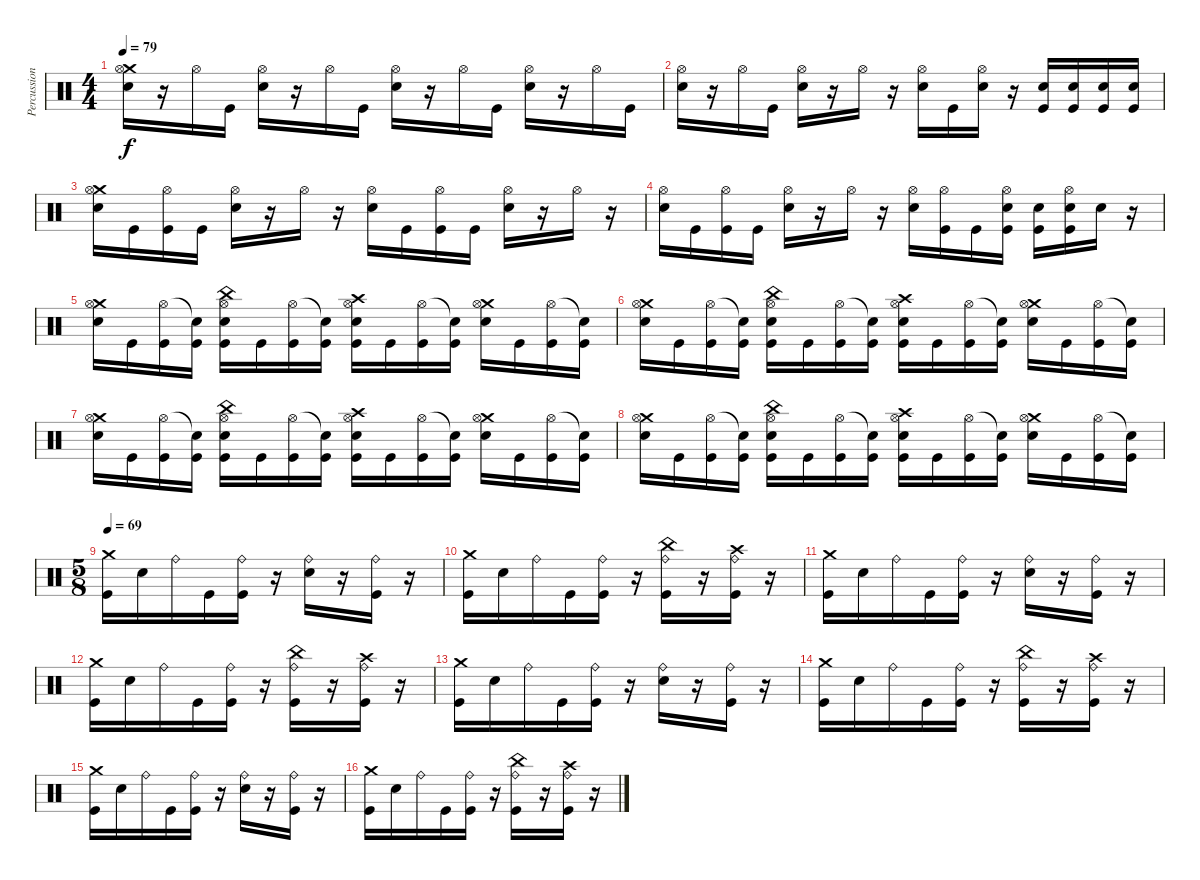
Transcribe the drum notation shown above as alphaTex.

\track ("Percussion" "Percussion") {instrument percussion}
\staff {score}
\articulation defaults
\ts (4 4)
\tempo 79
\clef neutral
\ks c
("Crash medium (hit)" "Hi-Hat (open)" "Electric Snare (hit)").16{dy f} r.16 "Hi-Hat (open)".16 "Kick (hit)".16 ("Hi-Hat (open)" "Electric Snare (hit)").16 r.16 "Hi-Hat (open)".16 "Kick (hit)".16 ("Hi-Hat (open)" "Electric Snare (hit)").16 r.16 "Hi-Hat (open)".16 "Kick (hit)".16 ("Hi-Hat (open)" "Electric Snare (hit)").16 r.16 "Hi-Hat (open)".16 "Kick (hit)".16 |
("Hi-Hat (open)" "Electric Snare (hit)").16 r.16 "Hi-Hat (open)".16 "Kick (hit)".16 ("Hi-Hat (open)" "Electric Snare (hit)").16 r.16 "Hi-Hat (open)".16 r.16 ("Hi-Hat (open)" "Electric Snare (hit)").16 "Kick (hit)".16 ("Hi-Hat (open)" "Electric Snare (hit)").16 r.16 ("Electric Snare (hit)" "Kick (hit)").16 ("Electric Snare (hit)" "Kick (hit)").16 ("Electric Snare (hit)" "Kick (hit)").16 ("Electric Snare (hit)" "Kick (hit)").16 |
("Crash medium (hit)" "Hi-Hat (open)" "Electric Snare (hit)").16 "Kick (hit)".16 ("Hi-Hat (open)" "Kick (hit)").16 "Kick (hit)".16 ("Hi-Hat (open)" "Electric Snare (hit)").16 r.16 "Hi-Hat (open)".16 r.16 ("Hi-Hat (open)" "Electric Snare (hit)").16 "Kick (hit)".16 ("Hi-Hat (open)" "Kick (hit)").16 "Kick (hit)".16 ("Hi-Hat (open)" "Electric Snare (hit)").16 r.16 "Hi-Hat (open)".16 r.16 |
("Hi-Hat (open)" "Electric Snare (hit)").16 "Kick (hit)".16 ("Hi-Hat (open)" "Kick (hit)").16 "Kick (hit)".16 ("Hi-Hat (open)" "Electric Snare (hit)").16 r.16 "Hi-Hat (open)".16 r.16 ("Hi-Hat (open)" "Electric Snare (hit)").16 ("Hi-Hat (open)" "Kick (hit)").16 "Kick (hit)".16 ("Hi-Hat (open)" "Electric Snare (hit)" "Kick (hit)").16 ("Electric Snare (hit)" "Kick (hit)").16 ("Hi-Hat (open)" "Electric Snare (hit)" "Kick (hit)").16 "Electric Snare (hit)".16 r.16 |
("Crash medium (hit)" "Hi-Hat (open)" "Electric Snare (hit)").16 "Kick (hit)".16 ("Hi-Hat (open)" "Kick (hit)").16 ("Snare (hit)"{t} "Kick (hit)").16 ("China (hit)" "Hi-Hat (open)" "Electric Snare (hit)" "Kick (hit)").16 "Kick (hit)".16 ("Hi-Hat (open)" "Kick (hit)").16 ("Snare (hit)"{t} "Kick (hit)").16 ("Crash high (hit)" "Hi-Hat (open)" "Electric Snare (hit)" "Kick (hit)").16 "Kick (hit)".16 ("Hi-Hat (open)" "Kick (hit)").16 ("Snare (hit)"{t} "Kick (hit)").16 ("Crash medium (hit)" "Hi-Hat (open)" "Electric Snare (hit)").16 "Kick (hit)".16 ("Hi-Hat (open)" "Kick (hit)").16 ("Snare (hit)"{t} "Kick (hit)").16 |
("Crash medium (hit)" "Hi-Hat (open)" "Electric Snare (hit)").16 "Kick (hit)".16 ("Hi-Hat (open)" "Kick (hit)").16 ("Snare (hit)"{t} "Kick (hit)").16 ("China (hit)" "Hi-Hat (open)" "Electric Snare (hit)" "Kick (hit)").16 "Kick (hit)".16 ("Hi-Hat (open)" "Kick (hit)").16 ("Snare (hit)"{t} "Kick (hit)").16 ("Crash high (hit)" "Hi-Hat (open)" "Electric Snare (hit)" "Kick (hit)").16 "Kick (hit)".16 ("Hi-Hat (open)" "Kick (hit)").16 ("Snare (hit)"{t} "Kick (hit)").16 ("Crash medium (hit)" "Hi-Hat (open)" "Electric Snare (hit)").16 "Kick (hit)".16 ("Hi-Hat (open)" "Kick (hit)").16 ("Snare (hit)"{t} "Kick (hit)").16 |
("Crash medium (hit)" "Hi-Hat (open)" "Electric Snare (hit)").16 "Kick (hit)".16 ("Hi-Hat (open)" "Kick (hit)").16 ("Snare (hit)"{t} "Kick (hit)").16 ("China (hit)" "Hi-Hat (open)" "Electric Snare (hit)" "Kick (hit)").16 "Kick (hit)".16 ("Hi-Hat (open)" "Kick (hit)").16 ("Snare (hit)"{t} "Kick (hit)").16 ("Crash high (hit)" "Hi-Hat (open)" "Electric Snare (hit)" "Kick (hit)").16 "Kick (hit)".16 ("Hi-Hat (open)" "Kick (hit)").16 ("Snare (hit)"{t} "Kick (hit)").16 ("Crash medium (hit)" "Hi-Hat (open)" "Electric Snare (hit)").16 "Kick (hit)".16 ("Hi-Hat (open)" "Kick (hit)").16 ("Snare (hit)"{t} "Kick (hit)").16 |
("Crash medium (hit)" "Hi-Hat (open)" "Electric Snare (hit)").16 "Kick (hit)".16 ("Hi-Hat (open)" "Kick (hit)").16 ("Snare (hit)"{t} "Kick (hit)").16 ("China (hit)" "Hi-Hat (open)" "Electric Snare (hit)" "Kick (hit)").16 "Kick (hit)".16 ("Hi-Hat (open)" "Kick (hit)").16 ("Snare (hit)"{t} "Kick (hit)").16 ("Crash high (hit)" "Hi-Hat (open)" "Electric Snare (hit)" "Kick (hit)").16 "Kick (hit)".16 ("Hi-Hat (open)" "Kick (hit)").16 ("Snare (hit)"{t} "Kick (hit)").16 ("Crash medium (hit)" "Hi-Hat (open)" "Electric Snare (hit)").16 "Kick (hit)".16 ("Hi-Hat (open)" "Kick (hit)").16 ("Snare (hit)"{t} "Kick (hit)").16 |
\ts (5 8)
\tempo 69
("Crash medium (hit)" "Kick (hit)").16 "Electric Snare (hit)".16 "Ride (bell)".16 "Kick (hit)".16 ("Ride (bell)" "Kick (hit)").16 r.16 ("Ride (bell)" "Electric Snare (hit)").16 r.16 ("Ride (bell)" "Kick (hit)").16 r.16 |
("Crash medium (hit)" "Kick (hit)").16 "Electric Snare (hit)".16 "Ride (bell)".16 "Kick (hit)".16 ("Ride (bell)" "Kick (hit)").16 r.16 ("China (hit)" "Ride (bell)" "Kick (hit)").16 r.16 ("Crash high (hit)" "Ride (bell)" "Kick (hit)").16 r.16 |
("Crash medium (hit)" "Kick (hit)").16 "Electric Snare (hit)".16 "Ride (bell)".16 "Kick (hit)".16 ("Ride (bell)" "Kick (hit)").16 r.16 ("Ride (bell)" "Electric Snare (hit)").16 r.16 ("Ride (bell)" "Kick (hit)").16 r.16 |
("Crash medium (hit)" "Kick (hit)").16 "Electric Snare (hit)".16 "Ride (bell)".16 "Kick (hit)".16 ("Ride (bell)" "Kick (hit)").16 r.16 ("China (hit)" "Ride (bell)" "Kick (hit)").16 r.16 ("Crash high (hit)" "Ride (bell)" "Kick (hit)").16 r.16 |
("Crash medium (hit)" "Kick (hit)").16 "Electric Snare (hit)".16 "Ride (bell)".16 "Kick (hit)".16 ("Ride (bell)" "Kick (hit)").16 r.16 ("Ride (bell)" "Electric Snare (hit)").16 r.16 ("Ride (bell)" "Kick (hit)").16 r.16 |
("Crash medium (hit)" "Kick (hit)").16 "Electric Snare (hit)".16 "Ride (bell)".16 "Kick (hit)".16 ("Ride (bell)" "Kick (hit)").16 r.16 ("China (hit)" "Ride (bell)" "Kick (hit)").16 r.16 ("Crash high (hit)" "Ride (bell)" "Kick (hit)").16 r.16 |
("Crash medium (hit)" "Kick (hit)").16 "Electric Snare (hit)".16 "Ride (bell)".16 "Kick (hit)".16 ("Ride (bell)" "Kick (hit)").16 r.16 ("Ride (bell)" "Electric Snare (hit)").16 r.16 ("Ride (bell)" "Kick (hit)").16 r.16 |
("Crash medium (hit)" "Kick (hit)").16 "Electric Snare (hit)".16 "Ride (bell)".16 "Kick (hit)".16 ("Ride (bell)" "Kick (hit)").16 r.16 ("China (hit)" "Ride (bell)" "Kick (hit)").16 r.16 ("Crash high (hit)" "Ride (bell)" "Kick (hit)").16 r.16
